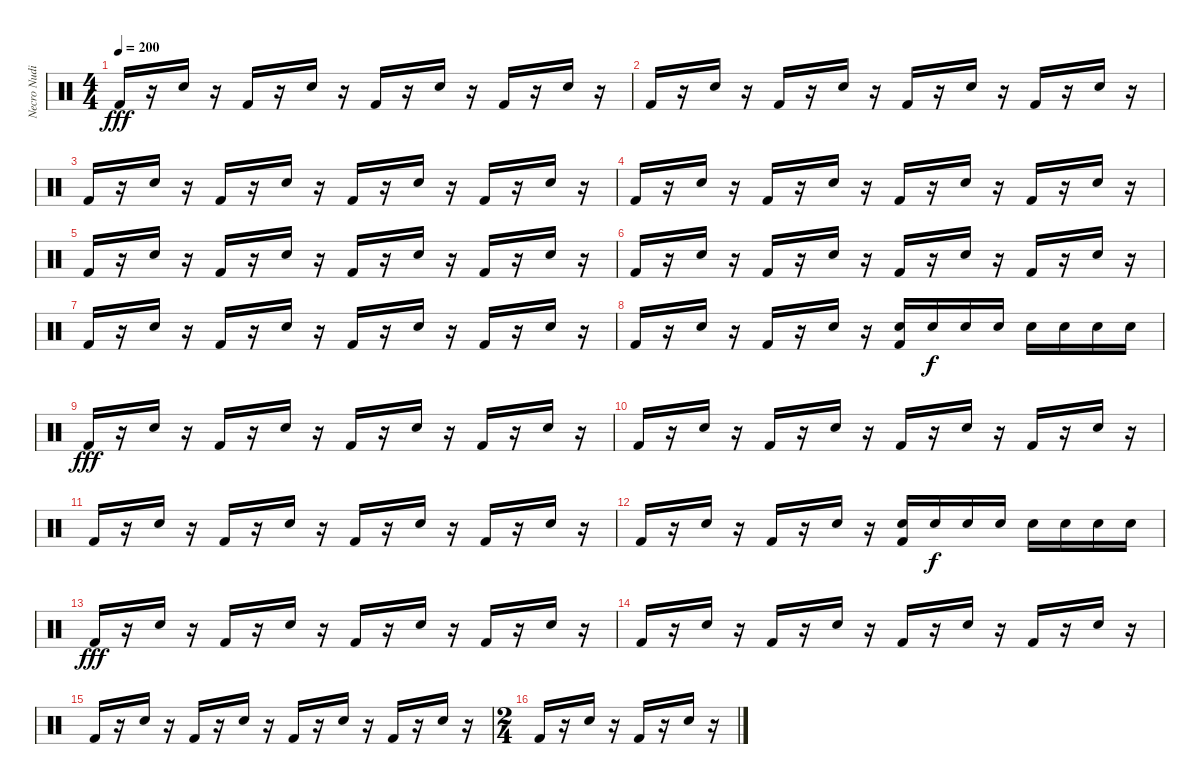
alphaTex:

\track ("Necro Nudist" "Necro Nudi") {instrument percussion}
\staff {score}
\articulation defaults
\ts (4 4)
\tempo 200
\clef neutral
\ks c "Kick (hit) 2".16{dy fff}
r.16 "Snare (hit) 2".16 r.16 "Kick (hit) 2".16 r.16 "Snare (hit) 2".16 r.16 "Kick (hit) 2".16 r.16 "Snare (hit) 2".16 r.16 "Kick (hit) 2".16 r.16 "Snare (hit) 2".16 r.16 |
"Kick (hit) 2".16 r.16 "Snare (hit) 2".16 r.16 "Kick (hit) 2".16 r.16 "Snare (hit) 2".16 r.16 "Kick (hit) 2".16 r.16 "Snare (hit) 2".16 r.16 "Kick (hit) 2".16 r.16 "Snare (hit) 2".16 r.16 |
"Kick (hit) 2".16 r.16 "Snare (hit) 2".16 r.16 "Kick (hit) 2".16 r.16 "Snare (hit) 2".16 r.16 "Kick (hit) 2".16 r.16 "Snare (hit) 2".16 r.16 "Kick (hit) 2".16 r.16 "Snare (hit) 2".16 r.16 |
"Kick (hit) 2".16 r.16 "Snare (hit) 2".16 r.16 "Kick (hit) 2".16 r.16 "Snare (hit) 2".16 r.16 "Kick (hit) 2".16 r.16 "Snare (hit) 2".16 r.16 "Kick (hit) 2".16 r.16 "Snare (hit) 2".16 r.16 |
"Kick (hit) 2".16 r.16 "Snare (hit) 2".16 r.16 "Kick (hit) 2".16 r.16 "Snare (hit) 2".16 r.16 "Kick (hit) 2".16 r.16 "Snare (hit) 2".16 r.16 "Kick (hit) 2".16 r.16 "Snare (hit) 2".16 r.16 |
"Kick (hit) 2".16 r.16 "Snare (hit) 2".16 r.16 "Kick (hit) 2".16 r.16 "Snare (hit) 2".16 r.16 "Kick (hit) 2".16 r.16 "Snare (hit) 2".16 r.16 "Kick (hit) 2".16 r.16 "Snare (hit) 2".16 r.16 |
"Kick (hit) 2".16 r.16 "Snare (hit) 2".16 r.16 "Kick (hit) 2".16 r.16 "Snare (hit) 2".16 r.16 "Kick (hit) 2".16 r.16 "Snare (hit) 2".16 r.16 "Kick (hit) 2".16 r.16 "Snare (hit) 2".16 r.16 |
"Kick (hit) 2".16 r.16 "Snare (hit) 2".16 r.16 "Kick (hit) 2".16 r.16 "Snare (hit) 2".16 r.16 ("Snare (hit) 2" "Kick (hit) 2").16 "Snare (hit) 2".16{dy f} "Snare (hit) 2".16 "Snare (hit) 2".16 "Snare (hit) 2".16 "Snare (hit) 2".16 "Snare (hit) 2".16 "Snare (hit) 2".16 |
"Kick (hit) 2".16{dy fff} r.16 "Snare (hit) 2".16 r.16 "Kick (hit) 2".16 r.16 "Snare (hit) 2".16 r.16 "Kick (hit) 2".16 r.16 "Snare (hit) 2".16 r.16 "Kick (hit) 2".16 r.16 "Snare (hit) 2".16 r.16 |
"Kick (hit) 2".16 r.16 "Snare (hit) 2".16 r.16 "Kick (hit) 2".16 r.16 "Snare (hit) 2".16 r.16 "Kick (hit) 2".16 r.16 "Snare (hit) 2".16 r.16 "Kick (hit) 2".16 r.16 "Snare (hit) 2".16 r.16 |
"Kick (hit) 2".16 r.16 "Snare (hit) 2".16 r.16 "Kick (hit) 2".16 r.16 "Snare (hit) 2".16 r.16 "Kick (hit) 2".16 r.16 "Snare (hit) 2".16 r.16 "Kick (hit) 2".16 r.16 "Snare (hit) 2".16 r.16 |
"Kick (hit) 2".16 r.16 "Snare (hit) 2".16 r.16 "Kick (hit) 2".16 r.16 "Snare (hit) 2".16 r.16 ("Snare (hit) 2" "Kick (hit) 2").16 "Snare (hit) 2".16{dy f} "Snare (hit) 2".16 "Snare (hit) 2".16 "Snare (hit) 2".16 "Snare (hit) 2".16 "Snare (hit) 2".16 "Snare (hit) 2".16 |
"Kick (hit) 2".16{dy fff} r.16 "Snare (hit) 2".16 r.16 "Kick (hit) 2".16 r.16 "Snare (hit) 2".16 r.16 "Kick (hit) 2".16 r.16 "Snare (hit) 2".16 r.16 "Kick (hit) 2".16 r.16 "Snare (hit) 2".16 r.16 |
"Kick (hit) 2".16 r.16 "Snare (hit) 2".16 r.16 "Kick (hit) 2".16 r.16 "Snare (hit) 2".16 r.16 "Kick (hit) 2".16 r.16 "Snare (hit) 2".16 r.16 "Kick (hit) 2".16 r.16 "Snare (hit) 2".16 r.16 |
"Kick (hit) 2".16 r.16 "Snare (hit) 2".16 r.16 "Kick (hit) 2".16 r.16 "Snare (hit) 2".16 r.16 "Kick (hit) 2".16 r.16 "Snare (hit) 2".16 r.16 "Kick (hit) 2".16 r.16 "Snare (hit) 2".16 r.16 |
\ts (2 4)
"Kick (hit) 2".16 r.16 "Snare (hit) 2".16 r.16 "Kick (hit) 2".16 r.16 "Snare (hit) 2".16 r.16
